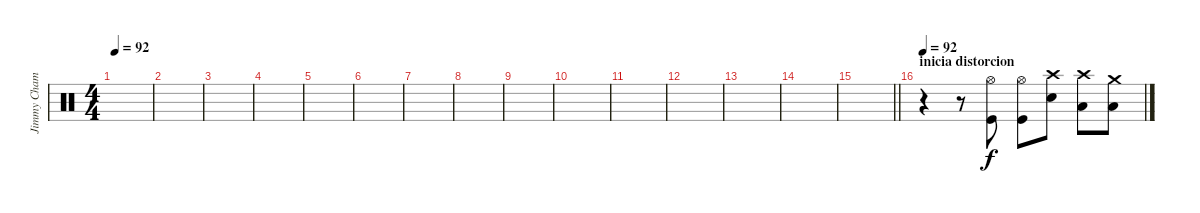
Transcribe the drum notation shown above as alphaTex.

\track ("Jimmy Chamberlin" "Jimmy Cham") {instrument percussion}
\staff {score}
\articulation defaults
\ts (4 4)
\tempo 92
\tempo 88
\tempo 92
\clef neutral
\ks c
|
|
|
|
|
|
|
|
|
|
|
|
|
|
\barLineRight lightlight
|
\section ("" "inicia distorcion")
\tempo 92
r.4 r.8 ("Hi-Hat (open)" "Kick (hit)").8 ("Hi-Hat (open)" "Kick (hit)").8 ("Crash high (hit)" "Snare (hit) 2").8 ("Crash high (hit)" "Low Tom (hit)").8 ("Crash medium (hit)" "Low Floor Tom (hit)").8
